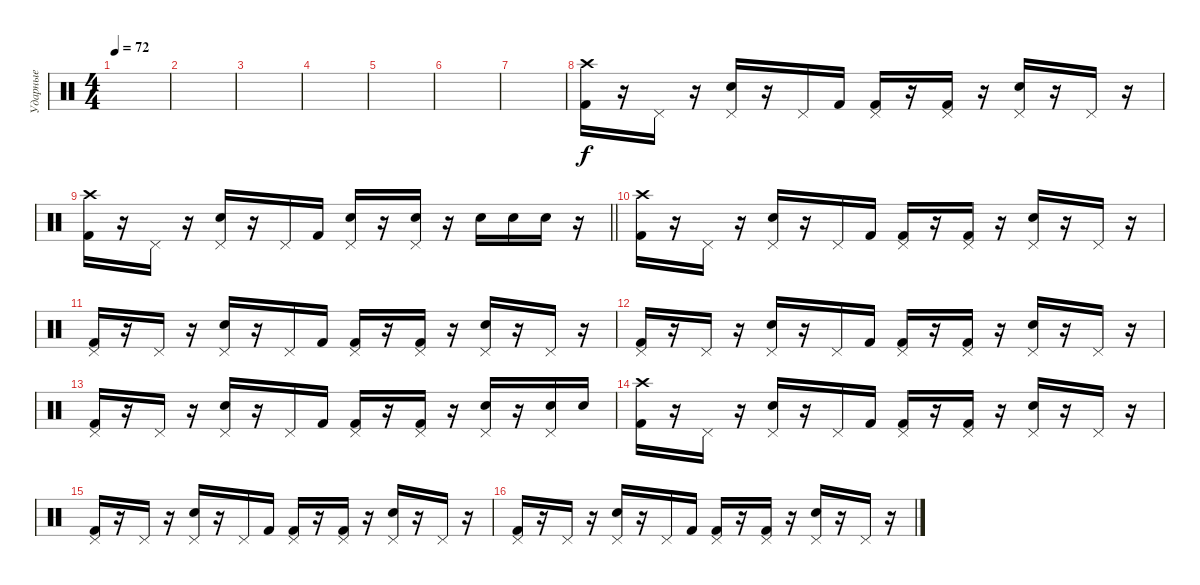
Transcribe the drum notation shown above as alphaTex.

\track ("Ударные" "Ударные") {instrument percussion}
\staff {score}
\articulation defaults
\ts (4 4)
\tempo 72
\clef neutral
\ks c
|
|
|
|
|
|
|
("Crash high (hit)" "Kick (hit) 2").16 r.16 "Pedal Hi-Hat (hit)".16 r.16 ("Pedal Hi-Hat (hit)" "Electric Snare (hit)").16 r.16 "Pedal Hi-Hat (hit)".16 "Kick (hit) 2".16 ("Pedal Hi-Hat (hit)" "Kick (hit) 2").16 r.16 ("Pedal Hi-Hat (hit)" "Kick (hit) 2").16 r.16 ("Pedal Hi-Hat (hit)" "Electric Snare (hit)").16 r.16 "Pedal Hi-Hat (hit)".16 r.16 |
\barLineRight lightlight
("Crash high (hit)" "Kick (hit) 2").16 r.16 "Pedal Hi-Hat (hit)".16 r.16 ("Pedal Hi-Hat (hit)" "Electric Snare (hit)").16 r.16 "Pedal Hi-Hat (hit)".16 "Kick (hit) 2".16 ("Pedal Hi-Hat (hit)" "Electric Snare (hit)").16 r.16 ("Pedal Hi-Hat (hit)" "Electric Snare (hit)").16 r.16 "Electric Snare (hit)".16 "Electric Snare (hit)".16 "Electric Snare (hit)".16 r.16 |
("Crash high (hit)" "Kick (hit) 2").16 r.16 "Pedal Hi-Hat (hit)".16 r.16 ("Pedal Hi-Hat (hit)" "Electric Snare (hit)").16 r.16 "Pedal Hi-Hat (hit)".16 "Kick (hit) 2".16 ("Pedal Hi-Hat (hit)" "Kick (hit) 2").16 r.16 ("Pedal Hi-Hat (hit)" "Kick (hit) 2").16 r.16 ("Pedal Hi-Hat (hit)" "Electric Snare (hit)").16 r.16 "Pedal Hi-Hat (hit)".16 r.16 |
("Pedal Hi-Hat (hit)" "Kick (hit) 2").16 r.16 "Pedal Hi-Hat (hit)".16 r.16 ("Pedal Hi-Hat (hit)" "Electric Snare (hit)").16 r.16 "Pedal Hi-Hat (hit)".16 "Kick (hit) 2".16 ("Pedal Hi-Hat (hit)" "Kick (hit) 2").16 r.16 ("Pedal Hi-Hat (hit)" "Kick (hit) 2").16 r.16 ("Pedal Hi-Hat (hit)" "Electric Snare (hit)").16 r.16 "Pedal Hi-Hat (hit)".16 r.16 |
("Pedal Hi-Hat (hit)" "Kick (hit) 2").16 r.16 "Pedal Hi-Hat (hit)".16 r.16 ("Pedal Hi-Hat (hit)" "Electric Snare (hit)").16 r.16 "Pedal Hi-Hat (hit)".16 "Kick (hit) 2".16 ("Pedal Hi-Hat (hit)" "Kick (hit) 2").16 r.16 ("Pedal Hi-Hat (hit)" "Kick (hit) 2").16 r.16 ("Pedal Hi-Hat (hit)" "Electric Snare (hit)").16 r.16 "Pedal Hi-Hat (hit)".16 r.16 |
("Pedal Hi-Hat (hit)" "Kick (hit) 2").16 r.16 "Pedal Hi-Hat (hit)".16 r.16 ("Pedal Hi-Hat (hit)" "Electric Snare (hit)").16 r.16 "Pedal Hi-Hat (hit)".16 "Kick (hit) 2".16 ("Pedal Hi-Hat (hit)" "Kick (hit) 2").16 r.16 ("Pedal Hi-Hat (hit)" "Kick (hit) 2").16 r.16 ("Pedal Hi-Hat (hit)" "Electric Snare (hit)").16 r.16 ("Pedal Hi-Hat (hit)" "Electric Snare (hit)").16 "Electric Snare (hit)".16 |
("Crash high (hit)" "Kick (hit) 2").16 r.16 "Pedal Hi-Hat (hit)".16 r.16 ("Pedal Hi-Hat (hit)" "Electric Snare (hit)").16 r.16 "Pedal Hi-Hat (hit)".16 "Kick (hit) 2".16 ("Pedal Hi-Hat (hit)" "Kick (hit) 2").16 r.16 ("Pedal Hi-Hat (hit)" "Kick (hit) 2").16 r.16 ("Pedal Hi-Hat (hit)" "Electric Snare (hit)").16 r.16 "Pedal Hi-Hat (hit)".16 r.16 |
("Pedal Hi-Hat (hit)" "Kick (hit) 2").16 r.16 "Pedal Hi-Hat (hit)".16 r.16 ("Pedal Hi-Hat (hit)" "Electric Snare (hit)").16 r.16 "Pedal Hi-Hat (hit)".16 "Kick (hit) 2".16 ("Pedal Hi-Hat (hit)" "Kick (hit) 2").16 r.16 ("Pedal Hi-Hat (hit)" "Kick (hit) 2").16 r.16 ("Pedal Hi-Hat (hit)" "Electric Snare (hit)").16 r.16 "Pedal Hi-Hat (hit)".16 r.16 |
("Pedal Hi-Hat (hit)" "Kick (hit) 2").16 r.16 "Pedal Hi-Hat (hit)".16 r.16 ("Pedal Hi-Hat (hit)" "Electric Snare (hit)").16 r.16 "Pedal Hi-Hat (hit)".16 "Kick (hit) 2".16 ("Pedal Hi-Hat (hit)" "Kick (hit) 2").16 r.16 ("Pedal Hi-Hat (hit)" "Kick (hit) 2").16 r.16 ("Pedal Hi-Hat (hit)" "Electric Snare (hit)").16 r.16 "Pedal Hi-Hat (hit)".16 r.16
